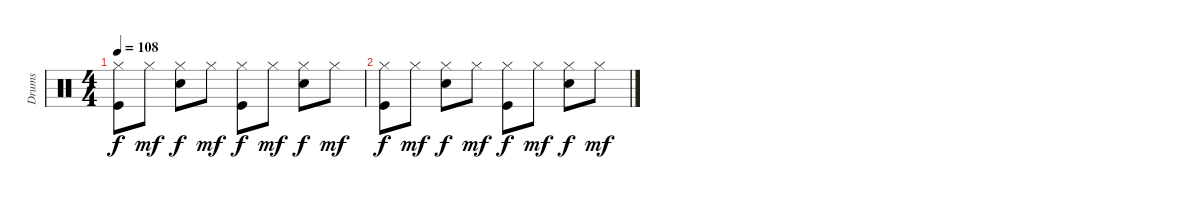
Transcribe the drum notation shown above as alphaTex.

\track ("Drums" "Drums") {instrument percussion}
\staff {score}
\articulation defaults
\ts (4 4)
\tempo 108
\clef neutral
\ks c
("Hi-Hat (closed)" "Kick (hit)").8{dy f volume 0} "Hi-Hat (closed)".8{dy mf} ("Hi-Hat (closed)" "Electric Snare (hit)").8{dy f} "Hi-Hat (closed)".8{dy mf} ("Hi-Hat (closed)" "Kick (hit)").8{dy f} "Hi-Hat (closed)".8{dy mf} ("Hi-Hat (closed)" "Electric Snare (hit)").8{dy f} "Hi-Hat (closed)".8{dy mf} |
("Hi-Hat (closed)" "Kick (hit)").8{dy f} "Hi-Hat (closed)".8{dy mf} ("Hi-Hat (closed)" "Electric Snare (hit)").8{dy f} "Hi-Hat (closed)".8{dy mf} ("Hi-Hat (closed)" "Kick (hit)").8{dy f} "Hi-Hat (closed)".8{dy mf} ("Hi-Hat (closed)" "Electric Snare (hit)").8{dy f} "Hi-Hat (closed)".8{dy mf}
